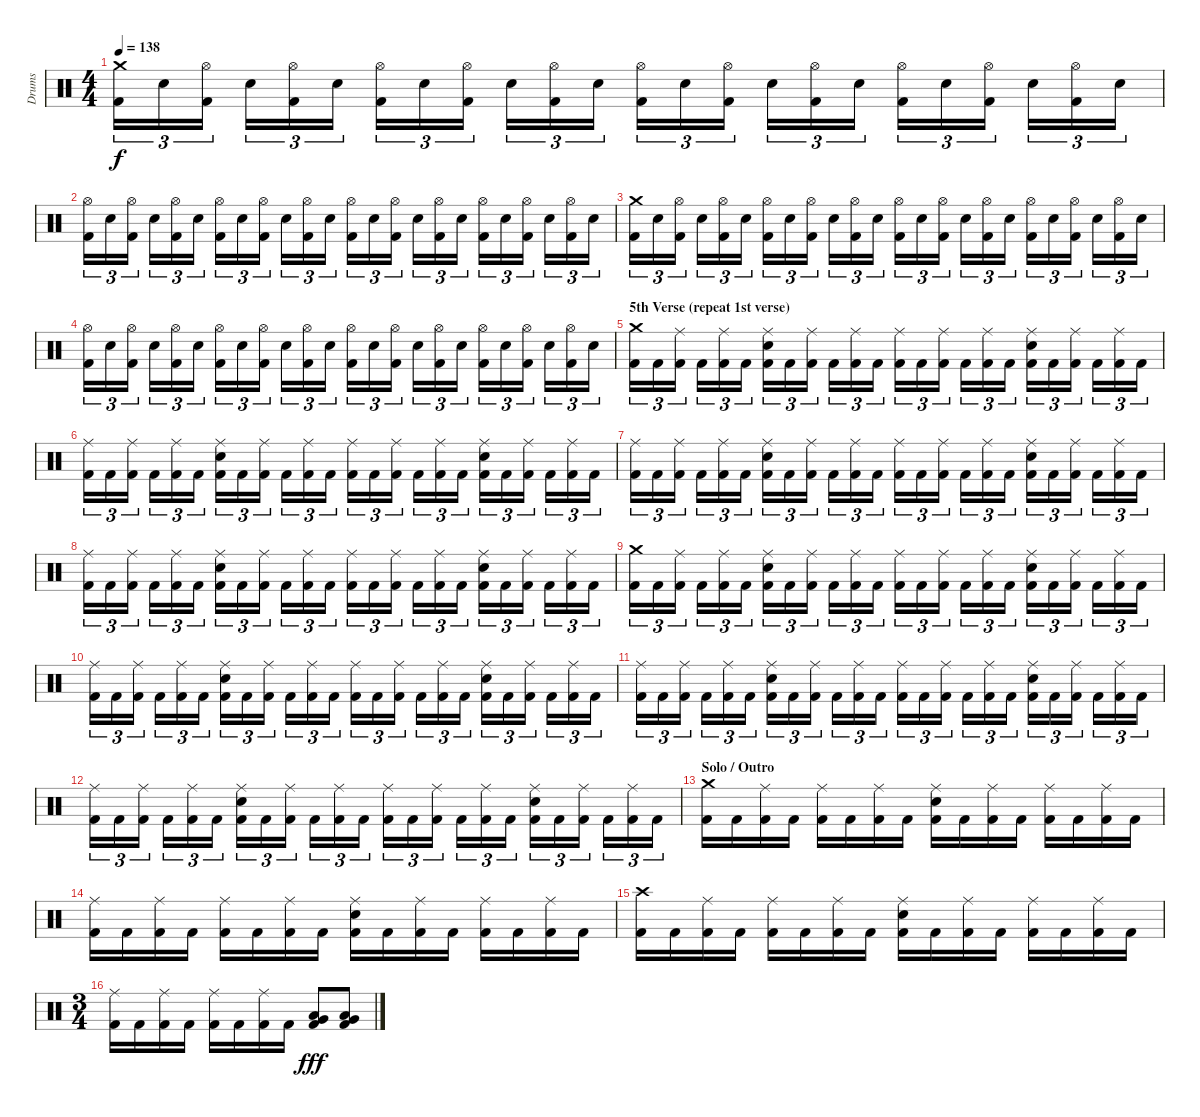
\track ("Drums" "Drums") {instrument percussion}
\staff {score}
\articulation defaults
\ts (4 4)
\tempo 138
\clef neutral
\ks c
("Kick (hit) 2" "Crash medium (hit)").16{tu (3 2) dy f} "Snare (hit) 2".16{tu (3 2)} ("Kick (hit) 2" "Hi-Hat (open)").16{tu (3 2)} "Snare (hit) 2".16{tu (3 2)} ("Kick (hit) 2" "Hi-Hat (open)").16{tu (3 2)} "Snare (hit) 2".16{tu (3 2)} ("Kick (hit) 2" "Hi-Hat (open)").16{tu (3 2)} "Snare (hit) 2".16{tu (3 2)} ("Kick (hit) 2" "Hi-Hat (open)").16{tu (3 2)} "Snare (hit) 2".16{tu (3 2)} ("Kick (hit) 2" "Hi-Hat (open)").16{tu (3 2)} "Snare (hit) 2".16{tu (3 2)} ("Kick (hit) 2" "Hi-Hat (open)").16{tu (3 2)} "Snare (hit) 2".16{tu (3 2)} ("Kick (hit) 2" "Hi-Hat (open)").16{tu (3 2)} "Snare (hit) 2".16{tu (3 2)} ("Kick (hit) 2" "Hi-Hat (open)").16{tu (3 2)} "Snare (hit) 2".16{tu (3 2)} ("Kick (hit) 2" "Hi-Hat (open)").16{tu (3 2)} "Snare (hit) 2".16{tu (3 2)} ("Kick (hit) 2" "Hi-Hat (open)").16{tu (3 2)} "Snare (hit) 2".16{tu (3 2)} ("Kick (hit) 2" "Hi-Hat (open)").16{tu (3 2)} "Snare (hit) 2".16{tu (3 2)} |
("Kick (hit) 2" "Hi-Hat (open)").16{tu (3 2)} "Snare (hit) 2".16{tu (3 2)} ("Kick (hit) 2" "Hi-Hat (open)").16{tu (3 2)} "Snare (hit) 2".16{tu (3 2)} ("Kick (hit) 2" "Hi-Hat (open)").16{tu (3 2)} "Snare (hit) 2".16{tu (3 2)} ("Kick (hit) 2" "Hi-Hat (open)").16{tu (3 2)} "Snare (hit) 2".16{tu (3 2)} ("Kick (hit) 2" "Hi-Hat (open)").16{tu (3 2)} "Snare (hit) 2".16{tu (3 2)} ("Kick (hit) 2" "Hi-Hat (open)").16{tu (3 2)} "Snare (hit) 2".16{tu (3 2)} ("Kick (hit) 2" "Hi-Hat (open)").16{tu (3 2)} "Snare (hit) 2".16{tu (3 2)} ("Kick (hit) 2" "Hi-Hat (open)").16{tu (3 2)} "Snare (hit) 2".16{tu (3 2)} ("Kick (hit) 2" "Hi-Hat (open)").16{tu (3 2)} "Snare (hit) 2".16{tu (3 2)} ("Kick (hit) 2" "Hi-Hat (open)").16{tu (3 2)} "Snare (hit) 2".16{tu (3 2)} ("Kick (hit) 2" "Hi-Hat (open)").16{tu (3 2)} "Snare (hit) 2".16{tu (3 2)} ("Kick (hit) 2" "Hi-Hat (open)").16{tu (3 2)} "Snare (hit) 2".16{tu (3 2)} |
("Kick (hit) 2" "Crash medium (hit)").16{tu (3 2)} "Snare (hit) 2".16{tu (3 2)} ("Kick (hit) 2" "Hi-Hat (open)").16{tu (3 2)} "Snare (hit) 2".16{tu (3 2)} ("Kick (hit) 2" "Hi-Hat (open)").16{tu (3 2)} "Snare (hit) 2".16{tu (3 2)} ("Kick (hit) 2" "Hi-Hat (open)").16{tu (3 2)} "Snare (hit) 2".16{tu (3 2)} ("Kick (hit) 2" "Hi-Hat (open)").16{tu (3 2)} "Snare (hit) 2".16{tu (3 2)} ("Kick (hit) 2" "Hi-Hat (open)").16{tu (3 2)} "Snare (hit) 2".16{tu (3 2)} ("Kick (hit) 2" "Hi-Hat (open)").16{tu (3 2)} "Snare (hit) 2".16{tu (3 2)} ("Kick (hit) 2" "Hi-Hat (open)").16{tu (3 2)} "Snare (hit) 2".16{tu (3 2)} ("Kick (hit) 2" "Hi-Hat (open)").16{tu (3 2)} "Snare (hit) 2".16{tu (3 2)} ("Kick (hit) 2" "Hi-Hat (open)").16{tu (3 2)} "Snare (hit) 2".16{tu (3 2)} ("Kick (hit) 2" "Hi-Hat (open)").16{tu (3 2)} "Snare (hit) 2".16{tu (3 2)} ("Kick (hit) 2" "Hi-Hat (open)").16{tu (3 2)} "Snare (hit) 2".16{tu (3 2)} |
("Kick (hit) 2" "Hi-Hat (open)").16{tu (3 2)} "Snare (hit) 2".16{tu (3 2)} ("Kick (hit) 2" "Hi-Hat (open)").16{tu (3 2)} "Snare (hit) 2".16{tu (3 2)} ("Kick (hit) 2" "Hi-Hat (open)").16{tu (3 2)} "Snare (hit) 2".16{tu (3 2)} ("Kick (hit) 2" "Hi-Hat (open)").16{tu (3 2)} "Snare (hit) 2".16{tu (3 2)} ("Kick (hit) 2" "Hi-Hat (open)").16{tu (3 2)} "Snare (hit) 2".16{tu (3 2)} ("Kick (hit) 2" "Hi-Hat (open)").16{tu (3 2)} "Snare (hit) 2".16{tu (3 2)} ("Kick (hit) 2" "Hi-Hat (open)").16{tu (3 2)} "Snare (hit) 2".16{tu (3 2)} ("Kick (hit) 2" "Hi-Hat (open)").16{tu (3 2)} "Snare (hit) 2".16{tu (3 2)} ("Kick (hit) 2" "Hi-Hat (open)").16{tu (3 2)} "Snare (hit) 2".16{tu (3 2)} ("Kick (hit) 2" "Hi-Hat (open)").16{tu (3 2)} "Snare (hit) 2".16{tu (3 2)} ("Kick (hit) 2" "Hi-Hat (open)").16{tu (3 2)} "Snare (hit) 2".16{tu (3 2)} ("Kick (hit) 2" "Hi-Hat (open)").16{tu (3 2)} "Snare (hit) 2".16{tu (3 2)} |
\section ("" "5th Verse (repeat 1st verse)")
("Kick (hit) 2" "Crash medium (hit)").16{tu (3 2)} "Kick (hit) 2".16{tu (3 2)} ("Kick (hit) 2" "Ride (middle)").16{tu (3 2)} "Kick (hit) 2".16{tu (3 2)} ("Kick (hit) 2" "Ride (middle)").16{tu (3 2)} "Kick (hit) 2".16{tu (3 2)} ("Kick (hit) 2" "Electric Snare (hit)" "Ride (middle)").16{tu (3 2)} "Kick (hit) 2".16{tu (3 2)} ("Kick (hit) 2" "Ride (middle)").16{tu (3 2)} "Kick (hit) 2".16{tu (3 2)} ("Kick (hit) 2" "Ride (middle)").16{tu (3 2)} "Kick (hit) 2".16{tu (3 2)} ("Kick (hit) 2" "Ride (middle)").16{tu (3 2)} "Kick (hit) 2".16{tu (3 2)} ("Kick (hit) 2" "Ride (middle)").16{tu (3 2)} "Kick (hit) 2".16{tu (3 2)} ("Kick (hit) 2" "Ride (middle)").16{tu (3 2)} "Kick (hit) 2".16{tu (3 2)} ("Kick (hit) 2" "Electric Snare (hit)" "Ride (middle)").16{tu (3 2)} "Kick (hit) 2".16{tu (3 2)} ("Kick (hit) 2" "Ride (middle)").16{tu (3 2)} "Kick (hit) 2".16{tu (3 2)} ("Kick (hit) 2" "Ride (middle)").16{tu (3 2)} "Kick (hit) 2".16{tu (3 2)} |
("Kick (hit) 2" "Ride (middle)").16{tu (3 2)} "Kick (hit) 2".16{tu (3 2)} ("Kick (hit) 2" "Ride (middle)").16{tu (3 2)} "Kick (hit) 2".16{tu (3 2)} ("Kick (hit) 2" "Ride (middle)").16{tu (3 2)} "Kick (hit) 2".16{tu (3 2)} ("Kick (hit) 2" "Electric Snare (hit)" "Ride (middle)").16{tu (3 2)} "Kick (hit) 2".16{tu (3 2)} ("Kick (hit) 2" "Ride (middle)").16{tu (3 2)} "Kick (hit) 2".16{tu (3 2)} ("Kick (hit) 2" "Ride (middle)").16{tu (3 2)} "Kick (hit) 2".16{tu (3 2)} ("Kick (hit) 2" "Ride (middle)").16{tu (3 2)} "Kick (hit) 2".16{tu (3 2)} ("Kick (hit) 2" "Ride (middle)").16{tu (3 2)} "Kick (hit) 2".16{tu (3 2)} ("Kick (hit) 2" "Ride (middle)").16{tu (3 2)} "Kick (hit) 2".16{tu (3 2)} ("Kick (hit) 2" "Electric Snare (hit)" "Ride (middle)").16{tu (3 2)} "Kick (hit) 2".16{tu (3 2)} ("Kick (hit) 2" "Ride (middle)").16{tu (3 2)} "Kick (hit) 2".16{tu (3 2)} ("Kick (hit) 2" "Ride (middle)").16{tu (3 2)} "Kick (hit) 2".16{tu (3 2)} |
("Kick (hit) 2" "Ride (middle)").16{tu (3 2)} "Kick (hit) 2".16{tu (3 2)} ("Kick (hit) 2" "Ride (middle)").16{tu (3 2)} "Kick (hit) 2".16{tu (3 2)} ("Kick (hit) 2" "Ride (middle)").16{tu (3 2)} "Kick (hit) 2".16{tu (3 2)} ("Kick (hit) 2" "Electric Snare (hit)" "Ride (middle)").16{tu (3 2)} "Kick (hit) 2".16{tu (3 2)} ("Kick (hit) 2" "Ride (middle)").16{tu (3 2)} "Kick (hit) 2".16{tu (3 2)} ("Kick (hit) 2" "Ride (middle)").16{tu (3 2)} "Kick (hit) 2".16{tu (3 2)} ("Kick (hit) 2" "Ride (middle)").16{tu (3 2)} "Kick (hit) 2".16{tu (3 2)} ("Kick (hit) 2" "Ride (middle)").16{tu (3 2)} "Kick (hit) 2".16{tu (3 2)} ("Kick (hit) 2" "Ride (middle)").16{tu (3 2)} "Kick (hit) 2".16{tu (3 2)} ("Kick (hit) 2" "Electric Snare (hit)" "Ride (middle)").16{tu (3 2)} "Kick (hit) 2".16{tu (3 2)} ("Kick (hit) 2" "Ride (middle)").16{tu (3 2)} "Kick (hit) 2".16{tu (3 2)} ("Kick (hit) 2" "Ride (middle)").16{tu (3 2)} "Kick (hit) 2".16{tu (3 2)} |
("Kick (hit) 2" "Ride (middle)").16{tu (3 2)} "Kick (hit) 2".16{tu (3 2)} ("Kick (hit) 2" "Ride (middle)").16{tu (3 2)} "Kick (hit) 2".16{tu (3 2)} ("Kick (hit) 2" "Ride (middle)").16{tu (3 2)} "Kick (hit) 2".16{tu (3 2)} ("Kick (hit) 2" "Electric Snare (hit)" "Ride (middle)").16{tu (3 2)} "Kick (hit) 2".16{tu (3 2)} ("Kick (hit) 2" "Ride (middle)").16{tu (3 2)} "Kick (hit) 2".16{tu (3 2)} ("Kick (hit) 2" "Ride (middle)").16{tu (3 2)} "Kick (hit) 2".16{tu (3 2)} ("Kick (hit) 2" "Ride (middle)").16{tu (3 2)} "Kick (hit) 2".16{tu (3 2)} ("Kick (hit) 2" "Ride (middle)").16{tu (3 2)} "Kick (hit) 2".16{tu (3 2)} ("Kick (hit) 2" "Ride (middle)").16{tu (3 2)} "Kick (hit) 2".16{tu (3 2)} ("Kick (hit) 2" "Electric Snare (hit)" "Ride (middle)").16{tu (3 2)} "Kick (hit) 2".16{tu (3 2)} ("Kick (hit) 2" "Ride (middle)").16{tu (3 2)} "Kick (hit) 2".16{tu (3 2)} ("Kick (hit) 2" "Ride (middle)").16{tu (3 2)} "Kick (hit) 2".16{tu (3 2)} |
("Kick (hit) 2" "Crash medium (hit)").16{tu (3 2)} "Kick (hit) 2".16{tu (3 2)} ("Kick (hit) 2" "Ride (middle)").16{tu (3 2)} "Kick (hit) 2".16{tu (3 2)} ("Kick (hit) 2" "Ride (middle)").16{tu (3 2)} "Kick (hit) 2".16{tu (3 2)} ("Kick (hit) 2" "Electric Snare (hit)" "Ride (middle)").16{tu (3 2)} "Kick (hit) 2".16{tu (3 2)} ("Kick (hit) 2" "Ride (middle)").16{tu (3 2)} "Kick (hit) 2".16{tu (3 2)} ("Kick (hit) 2" "Ride (middle)").16{tu (3 2)} "Kick (hit) 2".16{tu (3 2)} ("Kick (hit) 2" "Ride (middle)").16{tu (3 2)} "Kick (hit) 2".16{tu (3 2)} ("Kick (hit) 2" "Ride (middle)").16{tu (3 2)} "Kick (hit) 2".16{tu (3 2)} ("Kick (hit) 2" "Ride (middle)").16{tu (3 2)} "Kick (hit) 2".16{tu (3 2)} ("Kick (hit) 2" "Electric Snare (hit)" "Ride (middle)").16{tu (3 2)} "Kick (hit) 2".16{tu (3 2)} ("Kick (hit) 2" "Ride (middle)").16{tu (3 2)} "Kick (hit) 2".16{tu (3 2)} ("Kick (hit) 2" "Ride (middle)").16{tu (3 2)} "Kick (hit) 2".16{tu (3 2)} |
("Kick (hit) 2" "Ride (middle)").16{tu (3 2)} "Kick (hit) 2".16{tu (3 2)} ("Kick (hit) 2" "Ride (middle)").16{tu (3 2)} "Kick (hit) 2".16{tu (3 2)} ("Kick (hit) 2" "Ride (middle)").16{tu (3 2)} "Kick (hit) 2".16{tu (3 2)} ("Kick (hit) 2" "Electric Snare (hit)" "Ride (middle)").16{tu (3 2)} "Kick (hit) 2".16{tu (3 2)} ("Kick (hit) 2" "Ride (middle)").16{tu (3 2)} "Kick (hit) 2".16{tu (3 2)} ("Kick (hit) 2" "Ride (middle)").16{tu (3 2)} "Kick (hit) 2".16{tu (3 2)} ("Kick (hit) 2" "Ride (middle)").16{tu (3 2)} "Kick (hit) 2".16{tu (3 2)} ("Kick (hit) 2" "Ride (middle)").16{tu (3 2)} "Kick (hit) 2".16{tu (3 2)} ("Kick (hit) 2" "Ride (middle)").16{tu (3 2)} "Kick (hit) 2".16{tu (3 2)} ("Kick (hit) 2" "Electric Snare (hit)" "Ride (middle)").16{tu (3 2)} "Kick (hit) 2".16{tu (3 2)} ("Kick (hit) 2" "Ride (middle)").16{tu (3 2)} "Kick (hit) 2".16{tu (3 2)} ("Kick (hit) 2" "Ride (middle)").16{tu (3 2)} "Kick (hit) 2".16{tu (3 2)} |
("Kick (hit) 2" "Ride (middle)").16{tu (3 2)} "Kick (hit) 2".16{tu (3 2)} ("Kick (hit) 2" "Ride (middle)").16{tu (3 2)} "Kick (hit) 2".16{tu (3 2)} ("Kick (hit) 2" "Ride (middle)").16{tu (3 2)} "Kick (hit) 2".16{tu (3 2)} ("Kick (hit) 2" "Electric Snare (hit)" "Ride (middle)").16{tu (3 2)} "Kick (hit) 2".16{tu (3 2)} ("Kick (hit) 2" "Ride (middle)").16{tu (3 2)} "Kick (hit) 2".16{tu (3 2)} ("Kick (hit) 2" "Ride (middle)").16{tu (3 2)} "Kick (hit) 2".16{tu (3 2)} ("Kick (hit) 2" "Ride (middle)").16{tu (3 2)} "Kick (hit) 2".16{tu (3 2)} ("Kick (hit) 2" "Ride (middle)").16{tu (3 2)} "Kick (hit) 2".16{tu (3 2)} ("Kick (hit) 2" "Ride (middle)").16{tu (3 2)} "Kick (hit) 2".16{tu (3 2)} ("Kick (hit) 2" "Electric Snare (hit)" "Ride (middle)").16{tu (3 2)} "Kick (hit) 2".16{tu (3 2)} ("Kick (hit) 2" "Ride (middle)").16{tu (3 2)} "Kick (hit) 2".16{tu (3 2)} ("Kick (hit) 2" "Ride (middle)").16{tu (3 2)} "Kick (hit) 2".16{tu (3 2)} |
("Kick (hit) 2" "Ride (middle)").16{tu (3 2)} "Kick (hit) 2".16{tu (3 2)} ("Kick (hit) 2" "Ride (middle)").16{tu (3 2)} "Kick (hit) 2".16{tu (3 2)} ("Kick (hit) 2" "Ride (middle)").16{tu (3 2)} "Kick (hit) 2".16{tu (3 2)} ("Kick (hit) 2" "Electric Snare (hit)" "Ride (middle)").16{tu (3 2)} "Kick (hit) 2".16{tu (3 2)} ("Kick (hit) 2" "Ride (middle)").16{tu (3 2)} "Kick (hit) 2".16{tu (3 2)} ("Kick (hit) 2" "Ride (middle)").16{tu (3 2)} "Kick (hit) 2".16{tu (3 2)} ("Kick (hit) 2" "Ride (middle)").16{tu (3 2)} "Kick (hit) 2".16{tu (3 2)} ("Kick (hit) 2" "Ride (middle)").16{tu (3 2)} "Kick (hit) 2".16{tu (3 2)} ("Kick (hit) 2" "Ride (middle)").16{tu (3 2)} "Kick (hit) 2".16{tu (3 2)} ("Kick (hit) 2" "Electric Snare (hit)" "Ride (middle)").16{tu (3 2)} "Kick (hit) 2".16{tu (3 2)} ("Kick (hit) 2" "Ride (middle)").16{tu (3 2)} "Kick (hit) 2".16{tu (3 2)} ("Kick (hit) 2" "Ride (middle)").16{tu (3 2)} "Kick (hit) 2".16{tu (3 2)} |
\section ("" "Solo / Outro")
("Kick (hit) 2" "Crash medium (hit)").16 "Kick (hit) 2".16 ("Kick (hit) 2" "Ride (middle)").16 "Kick (hit) 2".16 ("Kick (hit) 2" "Ride (middle)").16 "Kick (hit) 2".16 ("Kick (hit) 2" "Ride (middle)").16 "Kick (hit) 2".16 ("Kick (hit) 2" "Electric Snare (hit)" "Ride (middle)").16 "Kick (hit) 2".16 ("Kick (hit) 2" "Ride (middle)").16 "Kick (hit) 2".16 ("Kick (hit) 2" "Ride (middle)").16 "Kick (hit) 2".16 ("Kick (hit) 2" "Ride (middle)").16 "Kick (hit) 2".16 |
("Kick (hit) 2" "Ride (middle)").16 "Kick (hit) 2".16 ("Kick (hit) 2" "Ride (middle)").16 "Kick (hit) 2".16 ("Kick (hit) 2" "Ride (middle)").16 "Kick (hit) 2".16 ("Kick (hit) 2" "Ride (middle)").16 "Kick (hit) 2".16 ("Kick (hit) 2" "Electric Snare (hit)" "Ride (middle)").16 "Kick (hit) 2".16 ("Kick (hit) 2" "Ride (middle)").16 "Kick (hit) 2".16 ("Kick (hit) 2" "Ride (middle)").16 "Kick (hit) 2".16 ("Kick (hit) 2" "Ride (middle)").16 "Kick (hit) 2".16 |
("Kick (hit) 2" "Crash high (hit)").16 "Kick (hit) 2".16 ("Kick (hit) 2" "Ride (middle)").16 "Kick (hit) 2".16 ("Kick (hit) 2" "Ride (middle)").16 "Kick (hit) 2".16 ("Kick (hit) 2" "Ride (middle)").16 "Kick (hit) 2".16 ("Kick (hit) 2" "Electric Snare (hit)" "Ride (middle)").16 "Kick (hit) 2".16 ("Kick (hit) 2" "Ride (middle)").16 "Kick (hit) 2".16 ("Kick (hit) 2" "Ride (middle)").16 "Kick (hit) 2".16 ("Kick (hit) 2" "Ride (middle)").16 "Kick (hit) 2".16 |
\ts (3 4)
("Kick (hit) 2" "Ride (middle)").16 "Kick (hit) 2".16 ("Kick (hit) 2" "Ride (middle)").16 "Kick (hit) 2".16 ("Kick (hit) 2" "Ride (middle)").16 "Kick (hit) 2".16 ("Kick (hit) 2" "Ride (middle)").16 "Kick (hit) 2".16 ("Kick (hit) 2" "Low Tom (hit)" "Very Low Tom (hit)").8{dy fff} ("Kick (hit) 2" "Low Tom (hit)" "Very Low Tom (hit)").8
